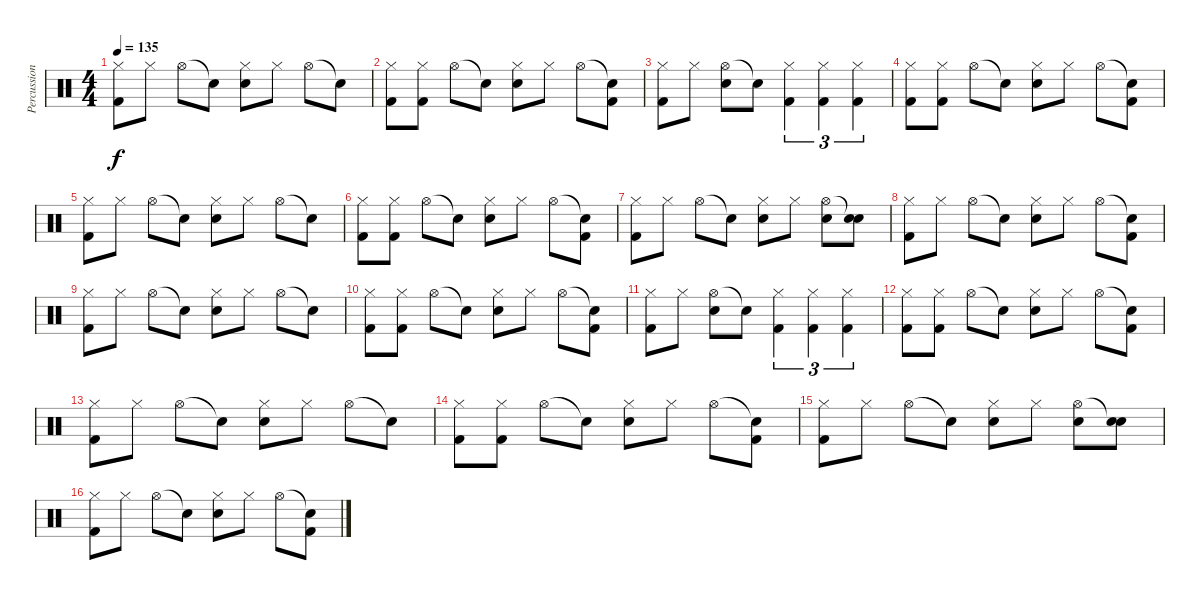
\track ("Percussion" "Percussion") {instrument percussion}
\staff {score}
\articulation defaults
\ts (4 4)
\tempo 135
\clef neutral
\ks c
("Hi-Hat (closed)" "Kick (hit) 2").8{dy f} "Hi-Hat (closed)".8 "Hi-Hat (open)".8 "Snare (hit)"{t}.8 ("Hi-Hat (closed)" "Electric Snare (hit)").8 "Hi-Hat (closed)".8 "Hi-Hat (open)".8 "Snare (hit)"{t}.8 |
("Hi-Hat (closed)" "Kick (hit) 2").8 ("Hi-Hat (closed)" "Kick (hit) 2").8 "Hi-Hat (open)".8 "Snare (hit)"{t}.8 ("Hi-Hat (closed)" "Electric Snare (hit)").8 "Hi-Hat (closed)".8 "Hi-Hat (open)".8 ("Snare (hit)"{t} "Kick (hit) 2").8 |
("Hi-Hat (closed)" "Kick (hit) 2").8 "Hi-Hat (closed)".8 ("Hi-Hat (open)" "Electric Snare (hit)").8 "Snare (hit)"{t}.8 ("Hi-Hat (closed)" "Kick (hit) 2").4{tu (3 2)} ("Hi-Hat (closed)" "Kick (hit) 2").4{tu (3 2)} ("Hi-Hat (closed)" "Kick (hit) 2").4{tu (3 2)} |
("Hi-Hat (closed)" "Kick (hit) 2").8 ("Hi-Hat (closed)" "Kick (hit) 2").8 "Hi-Hat (open)".8 "Snare (hit)"{t}.8 ("Hi-Hat (closed)" "Electric Snare (hit)").8 "Hi-Hat (closed)".8 "Hi-Hat (open)".8 ("Snare (hit)"{t} "Kick (hit) 2").8 |
("Hi-Hat (closed)" "Kick (hit) 2").8 "Hi-Hat (closed)".8 "Hi-Hat (open)".8 "Snare (hit)"{t}.8 ("Hi-Hat (closed)" "Electric Snare (hit)").8 "Hi-Hat (closed)".8 "Hi-Hat (open)".8 "Snare (hit)"{t}.8 |
("Hi-Hat (closed)" "Kick (hit) 2").8 ("Hi-Hat (closed)" "Kick (hit) 2").8 "Hi-Hat (open)".8 "Snare (hit)"{t}.8 ("Hi-Hat (closed)" "Electric Snare (hit)").8 "Hi-Hat (closed)".8 "Hi-Hat (open)".8 ("Snare (hit)"{t} "Kick (hit) 2").8 |
("Hi-Hat (closed)" "Kick (hit) 2").8 "Hi-Hat (closed)".8 "Hi-Hat (open)".8 "Snare (hit)"{t}.8 ("Hi-Hat (closed)" "Electric Snare (hit)").8 "Hi-Hat (closed)".8 ("Hi-Hat (open)" "Electric Snare (hit)").8 ("Snare (hit)"{t} "Electric Snare (hit)").8 |
("Hi-Hat (closed)" "Kick (hit) 2").8 "Hi-Hat (closed)".8 "Hi-Hat (open)".8 "Snare (hit)"{t}.8 ("Hi-Hat (closed)" "Electric Snare (hit)").8 "Hi-Hat (closed)".8 "Hi-Hat (open)".8 ("Snare (hit)"{t} "Kick (hit) 2").8 |
("Hi-Hat (closed)" "Kick (hit) 2").8 "Hi-Hat (closed)".8 "Hi-Hat (open)".8 "Snare (hit)"{t}.8 ("Hi-Hat (closed)" "Electric Snare (hit)").8 "Hi-Hat (closed)".8 "Hi-Hat (open)".8 "Snare (hit)"{t}.8 |
("Hi-Hat (closed)" "Kick (hit) 2").8 ("Hi-Hat (closed)" "Kick (hit) 2").8 "Hi-Hat (open)".8 "Snare (hit)"{t}.8 ("Hi-Hat (closed)" "Electric Snare (hit)").8 "Hi-Hat (closed)".8 "Hi-Hat (open)".8 ("Snare (hit)"{t} "Kick (hit) 2").8 |
("Hi-Hat (closed)" "Kick (hit) 2").8 "Hi-Hat (closed)".8 ("Hi-Hat (open)" "Electric Snare (hit)").8 "Snare (hit)"{t}.8 ("Hi-Hat (closed)" "Kick (hit) 2").4{tu (3 2)} ("Hi-Hat (closed)" "Kick (hit) 2").4{tu (3 2)} ("Hi-Hat (closed)" "Kick (hit) 2").4{tu (3 2)} |
("Hi-Hat (closed)" "Kick (hit) 2").8 ("Hi-Hat (closed)" "Kick (hit) 2").8 "Hi-Hat (open)".8 "Snare (hit)"{t}.8 ("Hi-Hat (closed)" "Electric Snare (hit)").8 "Hi-Hat (closed)".8 "Hi-Hat (open)".8 ("Snare (hit)"{t} "Kick (hit) 2").8 |
("Hi-Hat (closed)" "Kick (hit) 2").8 "Hi-Hat (closed)".8 "Hi-Hat (open)".8 "Snare (hit)"{t}.8 ("Hi-Hat (closed)" "Electric Snare (hit)").8 "Hi-Hat (closed)".8 "Hi-Hat (open)".8 "Snare (hit)"{t}.8 |
("Hi-Hat (closed)" "Kick (hit) 2").8 ("Hi-Hat (closed)" "Kick (hit) 2").8 "Hi-Hat (open)".8 "Snare (hit)"{t}.8 ("Hi-Hat (closed)" "Electric Snare (hit)").8 "Hi-Hat (closed)".8 "Hi-Hat (open)".8 ("Snare (hit)"{t} "Kick (hit) 2").8 |
("Hi-Hat (closed)" "Kick (hit) 2").8 "Hi-Hat (closed)".8 "Hi-Hat (open)".8 "Snare (hit)"{t}.8 ("Hi-Hat (closed)" "Electric Snare (hit)").8 "Hi-Hat (closed)".8 ("Hi-Hat (open)" "Electric Snare (hit)").8 ("Snare (hit)"{t} "Electric Snare (hit)").8 |
("Hi-Hat (closed)" "Kick (hit) 2").8 "Hi-Hat (closed)".8 "Hi-Hat (open)".8 "Snare (hit)"{t}.8 ("Hi-Hat (closed)" "Electric Snare (hit)").8 "Hi-Hat (closed)".8 "Hi-Hat (open)".8 ("Snare (hit)"{t} "Kick (hit) 2").8
